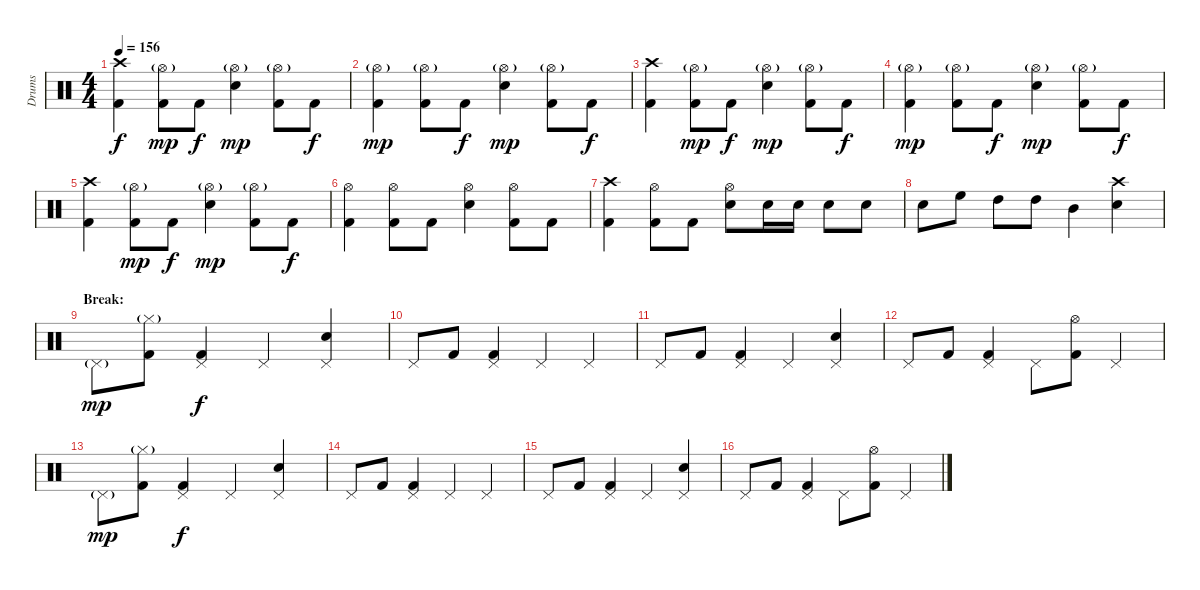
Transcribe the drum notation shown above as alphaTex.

\track ("Drums" "Drums") {instrument percussion}
\staff {score}
\articulation defaults
\ts (4 4)
\tempo 156
\clef neutral
\ks c
("Crash high (hit)" "Kick (hit) 2").4{dy f} ("Hi-Hat (open)"{g} "Kick (hit) 2").8{dy mp} "Kick (hit) 2".8{dy f} ("Hi-Hat (open)"{g} "Electric Snare (hit)").4{dy mp} ("Hi-Hat (open)"{g} "Kick (hit) 2").8 "Kick (hit) 2".8{dy f} |
("Hi-Hat (open)"{g} "Kick (hit) 2").4{dy mp} ("Hi-Hat (open)"{g} "Kick (hit) 2").8 "Kick (hit) 2".8{dy f} ("Hi-Hat (open)"{g} "Electric Snare (hit)").4{dy mp} ("Hi-Hat (open)"{g} "Kick (hit) 2").8 "Kick (hit) 2".8{dy f} |
("Crash high (hit)" "Kick (hit) 2").4 ("Hi-Hat (open)"{g} "Kick (hit) 2").8{dy mp} "Kick (hit) 2".8{dy f} ("Hi-Hat (open)"{g} "Electric Snare (hit)").4{dy mp} ("Hi-Hat (open)"{g} "Kick (hit) 2").8 "Kick (hit) 2".8{dy f} |
("Hi-Hat (open)"{g} "Kick (hit) 2").4{dy mp} ("Hi-Hat (open)"{g} "Kick (hit) 2").8 "Kick (hit) 2".8{dy f} ("Hi-Hat (open)"{g} "Electric Snare (hit)").4{dy mp} ("Hi-Hat (open)"{g} "Kick (hit) 2").8 "Kick (hit) 2".8{dy f} |
("Crash high (hit)" "Kick (hit) 2").4 ("Hi-Hat (open)"{g} "Kick (hit) 2").8{dy mp} "Kick (hit) 2".8{dy f} ("Hi-Hat (open)"{g} "Electric Snare (hit)").4{dy mp} ("Hi-Hat (open)"{g} "Kick (hit) 2").8 "Kick (hit) 2".8{dy f} |
("Hi-Hat (open)" "Kick (hit) 2").4 ("Hi-Hat (open)" "Kick (hit) 2").8 "Kick (hit) 2".8 ("Hi-Hat (open)" "Electric Snare (hit)").4 ("Hi-Hat (open)" "Kick (hit) 2").8 "Kick (hit) 2".8 |
("Crash high (hit)" "Kick (hit) 2").4 ("Hi-Hat (open)" "Kick (hit) 2").8 "Kick (hit) 2".8 ("Hi-Hat (open)" "Electric Snare (hit)").8 "Electric Snare (hit)".16 "Electric Snare (hit)".16 "Electric Snare (hit)".8 "Electric Snare (hit)".8 |
"Electric Snare (hit)".8 "High Floor Tom (hit)".8 "High Tom (hit)".8 "High Tom (hit)".8 "Mid Tom (hit)".4 ("Crash high (hit)" "Electric Snare (hit)").4 |
\section ("" "Break:")
"Pedal Hi-Hat (hit)"{g}.8{dy mp} ("Hi-Hat (closed)"{g} "Kick (hit) 2").8 ("Pedal Hi-Hat (hit)" "Kick (hit) 2").4{dy f} "Pedal Hi-Hat (hit)".4 ("Pedal Hi-Hat (hit)" "Electric Snare (hit)").4 |
"Pedal Hi-Hat (hit)".8 "Kick (hit) 2".8 ("Pedal Hi-Hat (hit)" "Kick (hit) 2").4 "Pedal Hi-Hat (hit)".4 "Pedal Hi-Hat (hit)".4 |
"Pedal Hi-Hat (hit)".8 "Kick (hit) 2".8 ("Pedal Hi-Hat (hit)" "Kick (hit) 2").4 "Pedal Hi-Hat (hit)".4 ("Pedal Hi-Hat (hit)" "Electric Snare (hit)").4 |
"Pedal Hi-Hat (hit)".8 "Kick (hit) 2".8 ("Pedal Hi-Hat (hit)" "Kick (hit) 2").4 "Pedal Hi-Hat (hit)".8 ("Hi-Hat (open)" "Kick (hit) 2").8 "Pedal Hi-Hat (hit)".4 |
"Pedal Hi-Hat (hit)"{g}.8{dy mp} ("Hi-Hat (closed)"{g} "Kick (hit) 2").8 ("Pedal Hi-Hat (hit)" "Kick (hit) 2").4{dy f} "Pedal Hi-Hat (hit)".4 ("Pedal Hi-Hat (hit)" "Electric Snare (hit)").4 |
"Pedal Hi-Hat (hit)".8 "Kick (hit) 2".8 ("Pedal Hi-Hat (hit)" "Kick (hit) 2").4 "Pedal Hi-Hat (hit)".4 "Pedal Hi-Hat (hit)".4 |
"Pedal Hi-Hat (hit)".8 "Kick (hit) 2".8 ("Pedal Hi-Hat (hit)" "Kick (hit) 2").4 "Pedal Hi-Hat (hit)".4 ("Pedal Hi-Hat (hit)" "Electric Snare (hit)").4 |
"Pedal Hi-Hat (hit)".8 "Kick (hit) 2".8 ("Pedal Hi-Hat (hit)" "Kick (hit) 2").4 "Pedal Hi-Hat (hit)".8 ("Hi-Hat (open)" "Kick (hit) 2").8 "Pedal Hi-Hat (hit)".4
